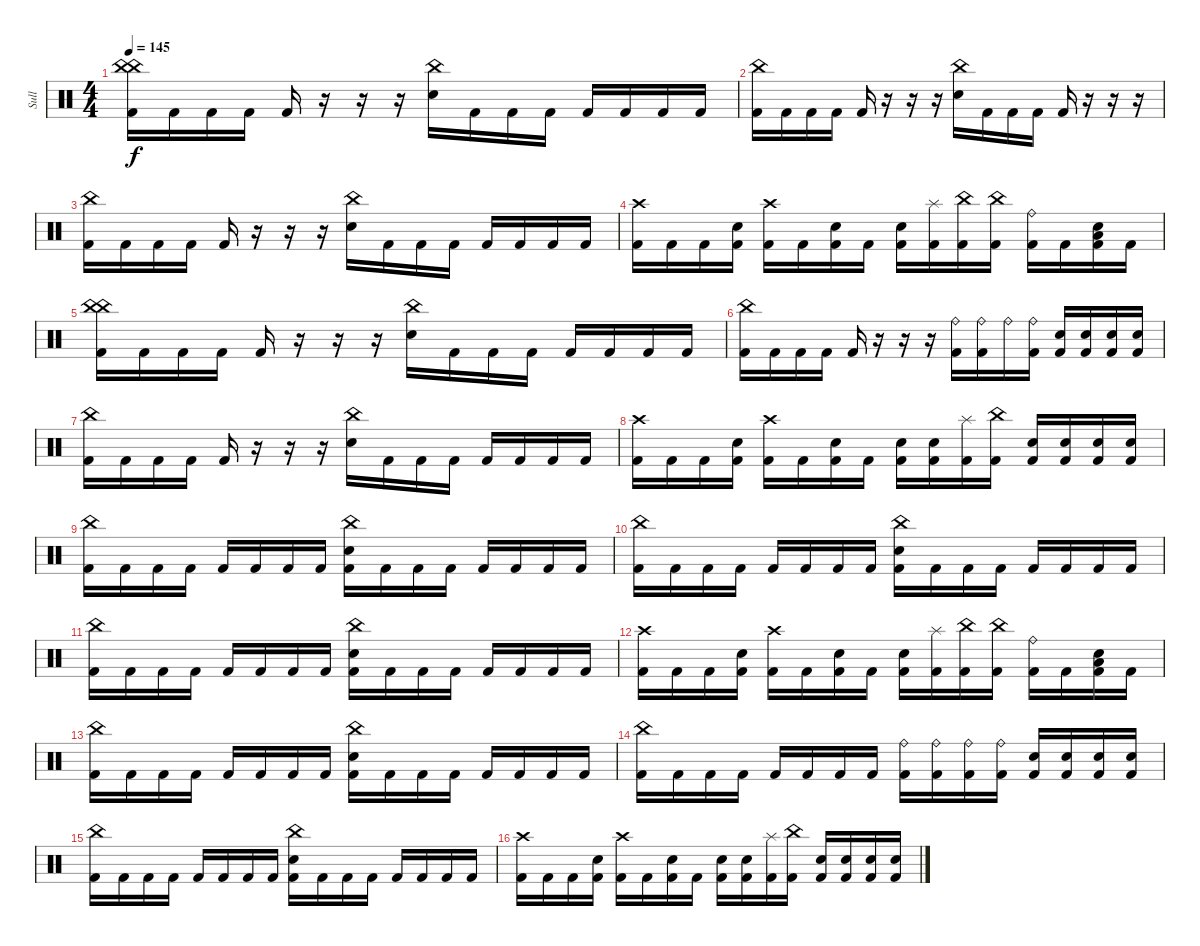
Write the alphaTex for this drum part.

\track ("Sull" "Sull") {instrument percussion}
\staff {score}
\articulation defaults
\ts (4 4)
\tempo 145
\clef neutral
\ks c
("China (hit)" "China (hit)" "Kick (hit) 2").16{dy f} "Kick (hit) 2".16 "Kick (hit) 2".16 "Kick (hit) 2".16 "Kick (hit) 2".16 r.16 r.16 r.16 ("China (hit)" "Electric Snare (hit)").16 "Kick (hit) 2".16 "Kick (hit) 2".16 "Kick (hit) 2".16 "Kick (hit) 2".16 "Kick (hit) 2".16 "Kick (hit) 2".16 "Kick (hit) 2".16 |
("China (hit)" "Kick (hit) 2").16 "Kick (hit) 2".16 "Kick (hit) 2".16 "Kick (hit) 2".16 "Kick (hit) 2".16 r.16 r.16 r.16 ("China (hit)" "Electric Snare (hit)").16 "Kick (hit) 2".16 "Kick (hit) 2".16 "Kick (hit) 2".16 "Kick (hit) 2".16 r.16 r.16 r.16 |
("China (hit)" "Kick (hit) 2").16 "Kick (hit) 2".16 "Kick (hit) 2".16 "Kick (hit) 2".16 "Kick (hit) 2".16 r.16 r.16 r.16 ("China (hit)" "Electric Snare (hit)").16 "Kick (hit) 2".16 "Kick (hit) 2".16 "Kick (hit) 2".16 "Kick (hit) 2".16 "Kick (hit) 2".16 "Kick (hit) 2".16 "Kick (hit) 2".16 |
("Crash high (hit)" "Kick (hit) 2").16 "Kick (hit) 2".16 "Kick (hit) 2".16 ("Electric Snare (hit)" "Kick (hit) 2").16 ("Crash high (hit)" "Kick (hit) 2").16 "Kick (hit) 2".16 ("Electric Snare (hit)" "Kick (hit) 2").16 "Kick (hit) 2".16 ("Electric Snare (hit)" "Kick (hit) 2").16 ("Splash (hit)" "Kick (hit) 2").16 ("China (hit)" "Kick (hit) 2").16 ("China (hit)" "Kick (hit) 2").16 ("Ride (bell)" "Kick (hit) 2").16 "Kick (hit) 2".16 ("Low Floor Tom (hit)" "Electric Snare (hit)" "Kick (hit) 2").16 "Kick (hit) 2".16 |
("China (hit)" "China (hit)" "Kick (hit) 2").16 "Kick (hit) 2".16 "Kick (hit) 2".16 "Kick (hit) 2".16 "Kick (hit) 2".16 r.16 r.16 r.16 ("China (hit)" "Electric Snare (hit)").16 "Kick (hit) 2".16 "Kick (hit) 2".16 "Kick (hit) 2".16 "Kick (hit) 2".16 "Kick (hit) 2".16 "Kick (hit) 2".16 "Kick (hit) 2".16 |
("China (hit)" "Kick (hit) 2").16 "Kick (hit) 2".16 "Kick (hit) 2".16 "Kick (hit) 2".16 "Kick (hit) 2".16 r.16 r.16 r.16 ("Ride (bell)" "Kick (hit) 2").16 ("Ride (bell)" "Kick (hit) 2").16 "Ride (bell)".16 ("Ride (bell)" "Kick (hit) 2").16 ("Electric Snare (hit)" "Kick (hit) 2").16 ("Electric Snare (hit)" "Kick (hit) 2").16 ("Electric Snare (hit)" "Kick (hit) 2").16 ("Electric Snare (hit)" "Kick (hit) 2").16 |
("China (hit)" "Kick (hit) 2").16 "Kick (hit) 2".16 "Kick (hit) 2".16 "Kick (hit) 2".16 "Kick (hit) 2".16 r.16 r.16 r.16 ("China (hit)" "Electric Snare (hit)").16 "Kick (hit) 2".16 "Kick (hit) 2".16 "Kick (hit) 2".16 "Kick (hit) 2".16 "Kick (hit) 2".16 "Kick (hit) 2".16 "Kick (hit) 2".16 |
("Crash high (hit)" "Kick (hit) 2").16 "Kick (hit) 2".16 "Kick (hit) 2".16 ("Electric Snare (hit)" "Kick (hit) 2").16 ("Crash high (hit)" "Kick (hit) 2").16 "Kick (hit) 2".16 ("Electric Snare (hit)" "Kick (hit) 2").16 "Kick (hit) 2".16 ("Electric Snare (hit)" "Kick (hit) 2").16 ("Electric Snare (hit)" "Kick (hit) 2").16 ("Splash (hit)" "Kick (hit) 2").16 ("China (hit)" "Kick (hit) 2").16 ("Electric Snare (hit)" "Kick (hit) 2").16 ("Electric Snare (hit)" "Kick (hit) 2").16 ("Electric Snare (hit)" "Kick (hit) 2").16 ("Electric Snare (hit)" "Kick (hit) 2").16 |
("China (hit)" "Kick (hit) 2").16 "Kick (hit) 2".16 "Kick (hit) 2".16 "Kick (hit) 2".16 "Kick (hit) 2".16 "Kick (hit) 2".16 "Kick (hit) 2".16 "Kick (hit) 2".16 ("China (hit)" "Electric Snare (hit)" "Kick (hit) 2").16 "Kick (hit) 2".16 "Kick (hit) 2".16 "Kick (hit) 2".16 "Kick (hit) 2".16 "Kick (hit) 2".16 "Kick (hit) 2".16 "Kick (hit) 2".16 |
("China (hit)" "Kick (hit) 2").16 "Kick (hit) 2".16 "Kick (hit) 2".16 "Kick (hit) 2".16 "Kick (hit) 2".16 "Kick (hit) 2".16 "Kick (hit) 2".16 "Kick (hit) 2".16 ("China (hit)" "Electric Snare (hit)" "Kick (hit) 2").16 "Kick (hit) 2".16 "Kick (hit) 2".16 "Kick (hit) 2".16 "Kick (hit) 2".16 "Kick (hit) 2".16 "Kick (hit) 2".16 "Kick (hit) 2".16 |
("China (hit)" "Kick (hit) 2").16 "Kick (hit) 2".16 "Kick (hit) 2".16 "Kick (hit) 2".16 "Kick (hit) 2".16 "Kick (hit) 2".16 "Kick (hit) 2".16 "Kick (hit) 2".16 ("China (hit)" "Electric Snare (hit)" "Kick (hit) 2").16 "Kick (hit) 2".16 "Kick (hit) 2".16 "Kick (hit) 2".16 "Kick (hit) 2".16 "Kick (hit) 2".16 "Kick (hit) 2".16 "Kick (hit) 2".16 |
("Crash high (hit)" "Kick (hit) 2").16 "Kick (hit) 2".16 "Kick (hit) 2".16 ("Electric Snare (hit)" "Kick (hit) 2").16 ("Crash high (hit)" "Kick (hit) 2").16 "Kick (hit) 2".16 ("Electric Snare (hit)" "Kick (hit) 2").16 "Kick (hit) 2".16 ("Electric Snare (hit)" "Kick (hit) 2").16 ("Splash (hit)" "Kick (hit) 2").16 ("China (hit)" "Kick (hit) 2").16 ("China (hit)" "Kick (hit) 2").16 ("Ride (bell)" "Kick (hit) 2").16 "Kick (hit) 2".16 ("Low Floor Tom (hit)" "Electric Snare (hit)" "Kick (hit) 2").16 "Kick (hit) 2".16 |
("China (hit)" "Kick (hit) 2").16 "Kick (hit) 2".16 "Kick (hit) 2".16 "Kick (hit) 2".16 "Kick (hit) 2".16 "Kick (hit) 2".16 "Kick (hit) 2".16 "Kick (hit) 2".16 ("China (hit)" "Electric Snare (hit)" "Kick (hit) 2").16 "Kick (hit) 2".16 "Kick (hit) 2".16 "Kick (hit) 2".16 "Kick (hit) 2".16 "Kick (hit) 2".16 "Kick (hit) 2".16 "Kick (hit) 2".16 |
("China (hit)" "Kick (hit) 2").16 "Kick (hit) 2".16 "Kick (hit) 2".16 "Kick (hit) 2".16 "Kick (hit) 2".16 "Kick (hit) 2".16 "Kick (hit) 2".16 "Kick (hit) 2".16 ("Ride (bell)" "Kick (hit) 2").16 ("Ride (bell)" "Kick (hit) 2").16 ("Ride (bell)" "Kick (hit) 2").16 ("Ride (bell)" "Kick (hit) 2").16 ("Electric Snare (hit)" "Kick (hit) 2").16 ("Electric Snare (hit)" "Kick (hit) 2").16 ("Electric Snare (hit)" "Kick (hit) 2").16 ("Electric Snare (hit)" "Kick (hit) 2").16 |
("China (hit)" "Kick (hit) 2").16 "Kick (hit) 2".16 "Kick (hit) 2".16 "Kick (hit) 2".16 "Kick (hit) 2".16 "Kick (hit) 2".16 "Kick (hit) 2".16 "Kick (hit) 2".16 ("China (hit)" "Electric Snare (hit)" "Kick (hit) 2").16 "Kick (hit) 2".16 "Kick (hit) 2".16 "Kick (hit) 2".16 "Kick (hit) 2".16 "Kick (hit) 2".16 "Kick (hit) 2".16 "Kick (hit) 2".16 |
("Crash high (hit)" "Kick (hit) 2").16 "Kick (hit) 2".16 "Kick (hit) 2".16 ("Electric Snare (hit)" "Kick (hit) 2").16 ("Crash high (hit)" "Kick (hit) 2").16 "Kick (hit) 2".16 ("Electric Snare (hit)" "Kick (hit) 2").16 "Kick (hit) 2".16 ("Electric Snare (hit)" "Kick (hit) 2").16 ("Electric Snare (hit)" "Kick (hit) 2").16 ("Splash (hit)" "Kick (hit) 2").16 ("China (hit)" "Kick (hit) 2").16 ("Electric Snare (hit)" "Kick (hit) 2").16 ("Electric Snare (hit)" "Kick (hit) 2").16 ("Electric Snare (hit)" "Kick (hit) 2").16 ("Electric Snare (hit)" "Kick (hit) 2").16
